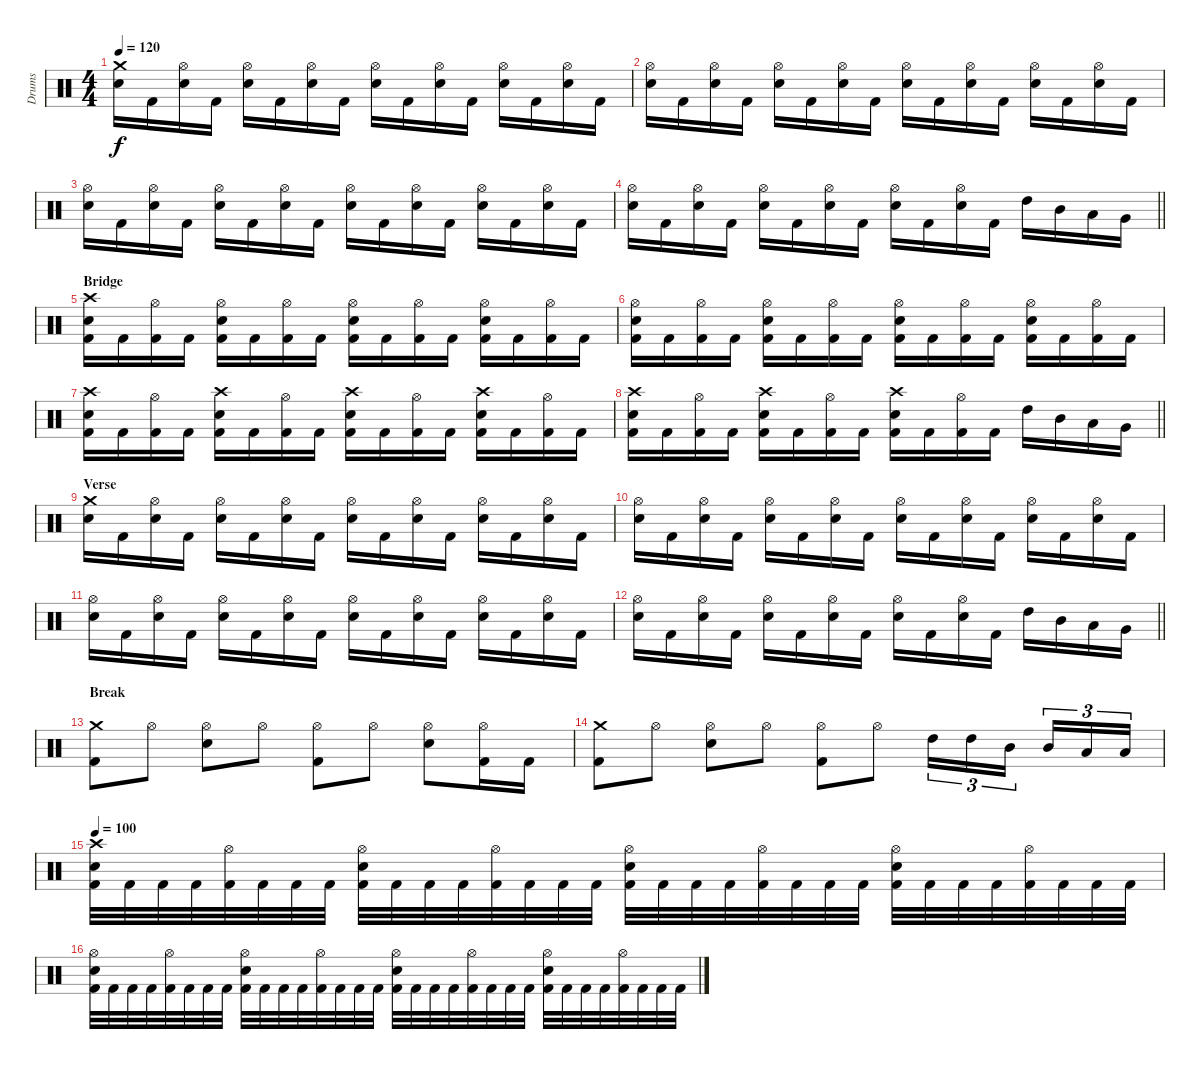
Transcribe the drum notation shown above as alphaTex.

\track ("Drums" "Drums") {instrument percussion}
\staff {score}
\articulation defaults
\ts (4 4)
\tempo 120
\clef neutral
\ks c
("Crash medium (hit)" "Electric Snare (hit)").16{dy f} "Kick (hit) 2".16 ("Hi-Hat (open)" "Electric Snare (hit)").16 "Kick (hit) 2".16 ("Hi-Hat (open)" "Electric Snare (hit)").16 "Kick (hit) 2".16 ("Hi-Hat (open)" "Electric Snare (hit)").16 "Kick (hit) 2".16 ("Hi-Hat (open)" "Electric Snare (hit)").16 "Kick (hit) 2".16 ("Hi-Hat (open)" "Electric Snare (hit)").16 "Kick (hit) 2".16 ("Hi-Hat (open)" "Electric Snare (hit)").16 "Kick (hit) 2".16 ("Hi-Hat (open)" "Electric Snare (hit)").16 "Kick (hit) 2".16 |
("Hi-Hat (open)" "Electric Snare (hit)").16 "Kick (hit) 2".16 ("Hi-Hat (open)" "Electric Snare (hit)").16 "Kick (hit) 2".16 ("Hi-Hat (open)" "Electric Snare (hit)").16 "Kick (hit) 2".16 ("Hi-Hat (open)" "Electric Snare (hit)").16 "Kick (hit) 2".16 ("Hi-Hat (open)" "Electric Snare (hit)").16 "Kick (hit) 2".16 ("Hi-Hat (open)" "Electric Snare (hit)").16 "Kick (hit) 2".16 ("Hi-Hat (open)" "Electric Snare (hit)").16 "Kick (hit) 2".16 ("Hi-Hat (open)" "Electric Snare (hit)").16 "Kick (hit) 2".16 |
("Hi-Hat (open)" "Electric Snare (hit)").16 "Kick (hit) 2".16 ("Hi-Hat (open)" "Electric Snare (hit)").16 "Kick (hit) 2".16 ("Hi-Hat (open)" "Electric Snare (hit)").16 "Kick (hit) 2".16 ("Hi-Hat (open)" "Electric Snare (hit)").16 "Kick (hit) 2".16 ("Hi-Hat (open)" "Electric Snare (hit)").16 "Kick (hit) 2".16 ("Hi-Hat (open)" "Electric Snare (hit)").16 "Kick (hit) 2".16 ("Hi-Hat (open)" "Electric Snare (hit)").16 "Kick (hit) 2".16 ("Hi-Hat (open)" "Electric Snare (hit)").16 "Kick (hit) 2".16 |
\barLineRight lightlight
("Hi-Hat (open)" "Electric Snare (hit)").16 "Kick (hit) 2".16 ("Hi-Hat (open)" "Electric Snare (hit)").16 "Kick (hit) 2".16 ("Hi-Hat (open)" "Electric Snare (hit)").16 "Kick (hit) 2".16 ("Hi-Hat (open)" "Electric Snare (hit)").16 "Kick (hit) 2".16 ("Hi-Hat (open)" "Electric Snare (hit)").16 "Kick (hit) 2".16 ("Hi-Hat (open)" "Electric Snare (hit)").16 "Kick (hit) 2".16 "High Tom (hit)".16 "Mid Tom (hit)".16 "Low Tom (hit)".16 "Very Low Tom (hit)".16 |
\section ("" "Bridge")
("Crash high (hit)" "Electric Snare (hit)" "Kick (hit) 2").16 "Kick (hit) 2".16 ("Hi-Hat (open)" "Kick (hit) 2").16 "Kick (hit) 2".16 ("Hi-Hat (open)" "Electric Snare (hit)" "Kick (hit) 2").16 "Kick (hit) 2".16 ("Hi-Hat (open)" "Kick (hit) 2").16 "Kick (hit) 2".16 ("Hi-Hat (open)" "Electric Snare (hit)" "Kick (hit) 2").16 "Kick (hit) 2".16 ("Hi-Hat (open)" "Kick (hit) 2").16 "Kick (hit) 2".16 ("Hi-Hat (open)" "Electric Snare (hit)" "Kick (hit) 2").16 "Kick (hit) 2".16 ("Hi-Hat (open)" "Kick (hit) 2").16 "Kick (hit) 2".16 |
("Hi-Hat (open)" "Electric Snare (hit)" "Kick (hit) 2").16 "Kick (hit) 2".16 ("Hi-Hat (open)" "Kick (hit) 2").16 "Kick (hit) 2".16 ("Hi-Hat (open)" "Electric Snare (hit)" "Kick (hit) 2").16 "Kick (hit) 2".16 ("Hi-Hat (open)" "Kick (hit) 2").16 "Kick (hit) 2".16 ("Hi-Hat (open)" "Electric Snare (hit)" "Kick (hit) 2").16 "Kick (hit) 2".16 ("Hi-Hat (open)" "Kick (hit) 2").16 "Kick (hit) 2".16 ("Hi-Hat (open)" "Electric Snare (hit)" "Kick (hit) 2").16 "Kick (hit) 2".16 ("Hi-Hat (open)" "Kick (hit) 2").16 "Kick (hit) 2".16 |
("Crash high (hit)" "Electric Snare (hit)" "Kick (hit) 2").16 "Kick (hit) 2".16 ("Hi-Hat (open)" "Kick (hit) 2").16 "Kick (hit) 2".16 ("Crash high (hit)" "Electric Snare (hit)" "Kick (hit) 2").16 "Kick (hit) 2".16 ("Hi-Hat (open)" "Kick (hit) 2").16 "Kick (hit) 2".16 ("Crash high (hit)" "Electric Snare (hit)" "Kick (hit) 2").16 "Kick (hit) 2".16 ("Hi-Hat (open)" "Kick (hit) 2").16 "Kick (hit) 2".16 ("Crash high (hit)" "Electric Snare (hit)" "Kick (hit) 2").16 "Kick (hit) 2".16 ("Hi-Hat (open)" "Kick (hit) 2").16 "Kick (hit) 2".16 |
\barLineRight lightlight
("Crash high (hit)" "Electric Snare (hit)" "Kick (hit) 2").16 "Kick (hit) 2".16 ("Hi-Hat (open)" "Kick (hit) 2").16 "Kick (hit) 2".16 ("Crash high (hit)" "Electric Snare (hit)" "Kick (hit) 2").16 "Kick (hit) 2".16 ("Hi-Hat (open)" "Kick (hit) 2").16 "Kick (hit) 2".16 ("Crash high (hit)" "Electric Snare (hit)" "Kick (hit) 2").16 "Kick (hit) 2".16 ("Hi-Hat (open)" "Kick (hit) 2").16 "Kick (hit) 2".16 "High Tom (hit)".16 "Mid Tom (hit)".16 "Low Tom (hit)".16 "Very Low Tom (hit)".16 |
\section ("" "Verse")
("Crash medium (hit)" "Electric Snare (hit)").16 "Kick (hit) 2".16 ("Hi-Hat (open)" "Electric Snare (hit)").16 "Kick (hit) 2".16 ("Hi-Hat (open)" "Electric Snare (hit)").16 "Kick (hit) 2".16 ("Hi-Hat (open)" "Electric Snare (hit)").16 "Kick (hit) 2".16 ("Hi-Hat (open)" "Electric Snare (hit)").16 "Kick (hit) 2".16 ("Hi-Hat (open)" "Electric Snare (hit)").16 "Kick (hit) 2".16 ("Hi-Hat (open)" "Electric Snare (hit)").16 "Kick (hit) 2".16 ("Hi-Hat (open)" "Electric Snare (hit)").16 "Kick (hit) 2".16 |
("Hi-Hat (open)" "Electric Snare (hit)").16 "Kick (hit) 2".16 ("Hi-Hat (open)" "Electric Snare (hit)").16 "Kick (hit) 2".16 ("Hi-Hat (open)" "Electric Snare (hit)").16 "Kick (hit) 2".16 ("Hi-Hat (open)" "Electric Snare (hit)").16 "Kick (hit) 2".16 ("Hi-Hat (open)" "Electric Snare (hit)").16 "Kick (hit) 2".16 ("Hi-Hat (open)" "Electric Snare (hit)").16 "Kick (hit) 2".16 ("Hi-Hat (open)" "Electric Snare (hit)").16 "Kick (hit) 2".16 ("Hi-Hat (open)" "Electric Snare (hit)").16 "Kick (hit) 2".16 |
("Hi-Hat (open)" "Electric Snare (hit)").16 "Kick (hit) 2".16 ("Hi-Hat (open)" "Electric Snare (hit)").16 "Kick (hit) 2".16 ("Hi-Hat (open)" "Electric Snare (hit)").16 "Kick (hit) 2".16 ("Hi-Hat (open)" "Electric Snare (hit)").16 "Kick (hit) 2".16 ("Hi-Hat (open)" "Electric Snare (hit)").16 "Kick (hit) 2".16 ("Hi-Hat (open)" "Electric Snare (hit)").16 "Kick (hit) 2".16 ("Hi-Hat (open)" "Electric Snare (hit)").16 "Kick (hit) 2".16 ("Hi-Hat (open)" "Electric Snare (hit)").16 "Kick (hit) 2".16 |
\barLineRight lightlight
("Hi-Hat (open)" "Electric Snare (hit)").16 "Kick (hit) 2".16 ("Hi-Hat (open)" "Electric Snare (hit)").16 "Kick (hit) 2".16 ("Hi-Hat (open)" "Electric Snare (hit)").16 "Kick (hit) 2".16 ("Hi-Hat (open)" "Electric Snare (hit)").16 "Kick (hit) 2".16 ("Hi-Hat (open)" "Electric Snare (hit)").16 "Kick (hit) 2".16 ("Hi-Hat (open)" "Electric Snare (hit)").16 "Kick (hit) 2".16 "High Tom (hit)".16 "Mid Tom (hit)".16 "Low Tom (hit)".16 "Very Low Tom (hit)".16 |
\section ("" "Break")
("Crash medium (hit)" "Kick (hit) 2").8 "Hi-Hat (open)".8 ("Hi-Hat (open)" "Electric Snare (hit)").8 "Hi-Hat (open)".8 ("Hi-Hat (open)" "Kick (hit) 2").8 "Hi-Hat (open)".8 ("Hi-Hat (open)" "Electric Snare (hit)").8 ("Hi-Hat (open)" "Kick (hit) 2").16 "Kick (hit) 2".16 |
("Crash medium (hit)" "Kick (hit) 2").8 "Hi-Hat (open)".8 ("Hi-Hat (open)" "Electric Snare (hit)").8 "Hi-Hat (open)".8 ("Hi-Hat (open)" "Kick (hit) 2").8 "Hi-Hat (open)".8 "High Tom (hit)".16{tu (3 2)} "High Tom (hit)".16{tu (3 2)} "Mid Tom (hit)".16{tu (3 2) beam splitsecondary} "Mid Tom (hit)".16{tu (3 2)} "Low Tom (hit)".16{tu (3 2)} "Low Tom (hit)".16{tu (3 2)} |
\tempo 100
("Crash high (hit)" "Electric Snare (hit)" "Kick (hit) 2").32 "Kick (hit) 2".32 "Kick (hit) 2".32 "Kick (hit) 2".32 ("Hi-Hat (open)" "Kick (hit) 2").32 "Kick (hit) 2".32 "Kick (hit) 2".32 "Kick (hit) 2".32 ("Hi-Hat (open)" "Electric Snare (hit)" "Kick (hit) 2").32 "Kick (hit) 2".32 "Kick (hit) 2".32 "Kick (hit) 2".32 ("Hi-Hat (open)" "Kick (hit) 2").32 "Kick (hit) 2".32 "Kick (hit) 2".32 "Kick (hit) 2".32 ("Hi-Hat (open)" "Electric Snare (hit)" "Kick (hit) 2").32 "Kick (hit) 2".32 "Kick (hit) 2".32 "Kick (hit) 2".32 ("Hi-Hat (open)" "Kick (hit) 2").32 "Kick (hit) 2".32 "Kick (hit) 2".32 "Kick (hit) 2".32 ("Hi-Hat (open)" "Electric Snare (hit)" "Kick (hit) 2").32 "Kick (hit) 2".32 "Kick (hit) 2".32 "Kick (hit) 2".32 ("Hi-Hat (open)" "Kick (hit) 2").32 "Kick (hit) 2".32 "Kick (hit) 2".32 "Kick (hit) 2".32 |
("Hi-Hat (open)" "Electric Snare (hit)" "Kick (hit) 2").32 "Kick (hit) 2".32 "Kick (hit) 2".32 "Kick (hit) 2".32 ("Hi-Hat (open)" "Kick (hit) 2").32 "Kick (hit) 2".32 "Kick (hit) 2".32 "Kick (hit) 2".32 ("Hi-Hat (open)" "Electric Snare (hit)" "Kick (hit) 2").32 "Kick (hit) 2".32 "Kick (hit) 2".32 "Kick (hit) 2".32 ("Hi-Hat (open)" "Kick (hit) 2").32 "Kick (hit) 2".32 "Kick (hit) 2".32 "Kick (hit) 2".32 ("Hi-Hat (open)" "Electric Snare (hit)" "Kick (hit) 2").32 "Kick (hit) 2".32 "Kick (hit) 2".32 "Kick (hit) 2".32 ("Hi-Hat (open)" "Kick (hit) 2").32 "Kick (hit) 2".32 "Kick (hit) 2".32 "Kick (hit) 2".32 ("Hi-Hat (open)" "Electric Snare (hit)" "Kick (hit) 2").32 "Kick (hit) 2".32 "Kick (hit) 2".32 "Kick (hit) 2".32 ("Hi-Hat (open)" "Kick (hit) 2").32 "Kick (hit) 2".32 "Kick (hit) 2".32 "Kick (hit) 2".32
